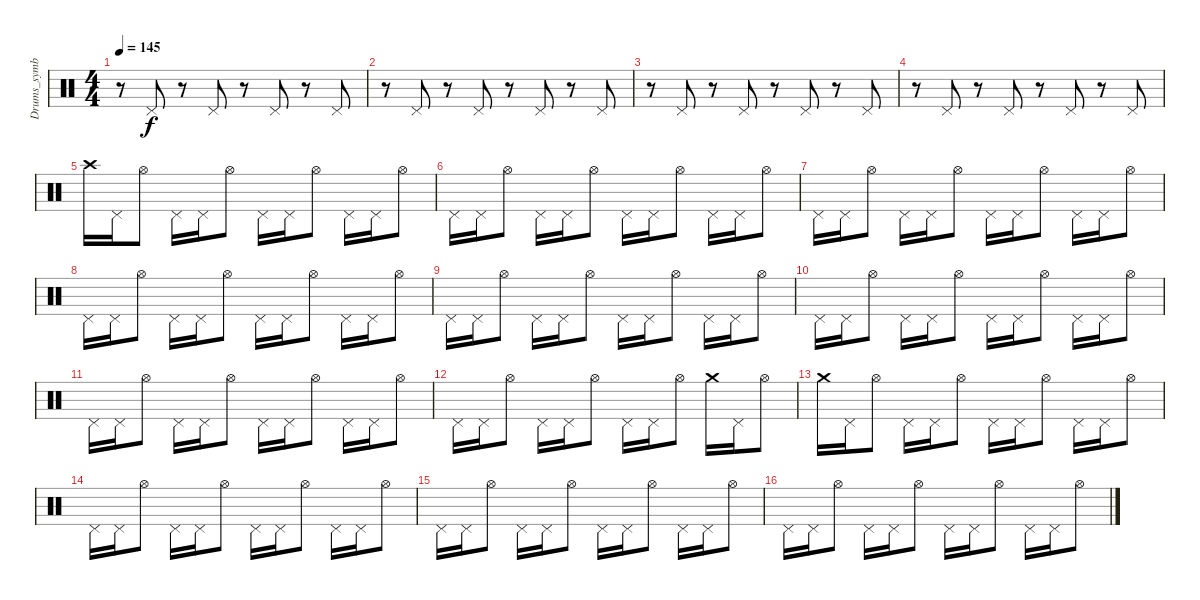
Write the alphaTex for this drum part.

\track ("Drums_symbal" "Drums_symb") {instrument percussion}
\staff {score}
\articulation defaults
\ts (4 4)
\tempo 145
\clef neutral
\ks c
r.8{dy f} "Pedal Hi-Hat (hit)".8 r.8 "Pedal Hi-Hat (hit)".8 r.8 "Pedal Hi-Hat (hit)".8 r.8 "Pedal Hi-Hat (hit)".8 |
r.8 "Pedal Hi-Hat (hit)".8 r.8 "Pedal Hi-Hat (hit)".8 r.8 "Pedal Hi-Hat (hit)".8 r.8 "Pedal Hi-Hat (hit)".8 |
r.8 "Pedal Hi-Hat (hit)".8 r.8 "Pedal Hi-Hat (hit)".8 r.8 "Pedal Hi-Hat (hit)".8 r.8 "Pedal Hi-Hat (hit)".8 |
r.8 "Pedal Hi-Hat (hit)".8 r.8 "Pedal Hi-Hat (hit)".8 r.8 "Pedal Hi-Hat (hit)".8 r.8 "Pedal Hi-Hat (hit)".8 |
"Crash high (hit)".16 "Pedal Hi-Hat (hit)".16 "Hi-Hat (open)".8 "Pedal Hi-Hat (hit)".16 "Pedal Hi-Hat (hit)".16 "Hi-Hat (open)".8 "Pedal Hi-Hat (hit)".16 "Pedal Hi-Hat (hit)".16 "Hi-Hat (open)".8 "Pedal Hi-Hat (hit)".16 "Pedal Hi-Hat (hit)".16 "Hi-Hat (open)".8 |
"Pedal Hi-Hat (hit)".16 "Pedal Hi-Hat (hit)".16 "Hi-Hat (open)".8 "Pedal Hi-Hat (hit)".16 "Pedal Hi-Hat (hit)".16 "Hi-Hat (open)".8 "Pedal Hi-Hat (hit)".16 "Pedal Hi-Hat (hit)".16 "Hi-Hat (open)".8 "Pedal Hi-Hat (hit)".16 "Pedal Hi-Hat (hit)".16 "Hi-Hat (open)".8 |
"Pedal Hi-Hat (hit)".16 "Pedal Hi-Hat (hit)".16 "Hi-Hat (open)".8 "Pedal Hi-Hat (hit)".16 "Pedal Hi-Hat (hit)".16 "Hi-Hat (open)".8 "Pedal Hi-Hat (hit)".16 "Pedal Hi-Hat (hit)".16 "Hi-Hat (open)".8 "Pedal Hi-Hat (hit)".16 "Pedal Hi-Hat (hit)".16 "Hi-Hat (open)".8 |
"Pedal Hi-Hat (hit)".16 "Pedal Hi-Hat (hit)".16 "Hi-Hat (open)".8 "Pedal Hi-Hat (hit)".16 "Pedal Hi-Hat (hit)".16 "Hi-Hat (open)".8 "Pedal Hi-Hat (hit)".16 "Pedal Hi-Hat (hit)".16 "Hi-Hat (open)".8 "Pedal Hi-Hat (hit)".16 "Pedal Hi-Hat (hit)".16 "Hi-Hat (open)".8 |
"Pedal Hi-Hat (hit)".16 "Pedal Hi-Hat (hit)".16 "Hi-Hat (open)".8 "Pedal Hi-Hat (hit)".16 "Pedal Hi-Hat (hit)".16 "Hi-Hat (open)".8 "Pedal Hi-Hat (hit)".16 "Pedal Hi-Hat (hit)".16 "Hi-Hat (open)".8 "Pedal Hi-Hat (hit)".16 "Pedal Hi-Hat (hit)".16 "Hi-Hat (open)".8 |
"Pedal Hi-Hat (hit)".16 "Pedal Hi-Hat (hit)".16 "Hi-Hat (open)".8 "Pedal Hi-Hat (hit)".16 "Pedal Hi-Hat (hit)".16 "Hi-Hat (open)".8 "Pedal Hi-Hat (hit)".16 "Pedal Hi-Hat (hit)".16 "Hi-Hat (open)".8 "Pedal Hi-Hat (hit)".16 "Pedal Hi-Hat (hit)".16 "Hi-Hat (open)".8 |
"Pedal Hi-Hat (hit)".16 "Pedal Hi-Hat (hit)".16 "Hi-Hat (open)".8 "Pedal Hi-Hat (hit)".16 "Pedal Hi-Hat (hit)".16 "Hi-Hat (open)".8 "Pedal Hi-Hat (hit)".16 "Pedal Hi-Hat (hit)".16 "Hi-Hat (open)".8 "Pedal Hi-Hat (hit)".16 "Pedal Hi-Hat (hit)".16 "Hi-Hat (open)".8 |
"Pedal Hi-Hat (hit)".16 "Pedal Hi-Hat (hit)".16 "Hi-Hat (open)".8 "Pedal Hi-Hat (hit)".16 "Pedal Hi-Hat (hit)".16 "Hi-Hat (open)".8 "Pedal Hi-Hat (hit)".16 "Pedal Hi-Hat (hit)".16 "Hi-Hat (open)".8 "Crash medium (hit)".16 "Pedal Hi-Hat (hit)".16 "Hi-Hat (open)".8 |
"Crash medium (hit)".16 "Pedal Hi-Hat (hit)".16 "Hi-Hat (open)".8 "Pedal Hi-Hat (hit)".16 "Pedal Hi-Hat (hit)".16 "Hi-Hat (open)".8 "Pedal Hi-Hat (hit)".16 "Pedal Hi-Hat (hit)".16 "Hi-Hat (open)".8 "Pedal Hi-Hat (hit)".16 "Pedal Hi-Hat (hit)".16 "Hi-Hat (open)".8 |
"Pedal Hi-Hat (hit)".16 "Pedal Hi-Hat (hit)".16 "Hi-Hat (open)".8 "Pedal Hi-Hat (hit)".16 "Pedal Hi-Hat (hit)".16 "Hi-Hat (open)".8 "Pedal Hi-Hat (hit)".16 "Pedal Hi-Hat (hit)".16 "Hi-Hat (open)".8 "Pedal Hi-Hat (hit)".16 "Pedal Hi-Hat (hit)".16 "Hi-Hat (open)".8 |
"Pedal Hi-Hat (hit)".16 "Pedal Hi-Hat (hit)".16 "Hi-Hat (open)".8 "Pedal Hi-Hat (hit)".16 "Pedal Hi-Hat (hit)".16 "Hi-Hat (open)".8 "Pedal Hi-Hat (hit)".16 "Pedal Hi-Hat (hit)".16 "Hi-Hat (open)".8 "Pedal Hi-Hat (hit)".16 "Pedal Hi-Hat (hit)".16 "Hi-Hat (open)".8 |
"Pedal Hi-Hat (hit)".16 "Pedal Hi-Hat (hit)".16 "Hi-Hat (open)".8 "Pedal Hi-Hat (hit)".16 "Pedal Hi-Hat (hit)".16 "Hi-Hat (open)".8 "Pedal Hi-Hat (hit)".16 "Pedal Hi-Hat (hit)".16 "Hi-Hat (open)".8 "Pedal Hi-Hat (hit)".16 "Pedal Hi-Hat (hit)".16 "Hi-Hat (open)".8
